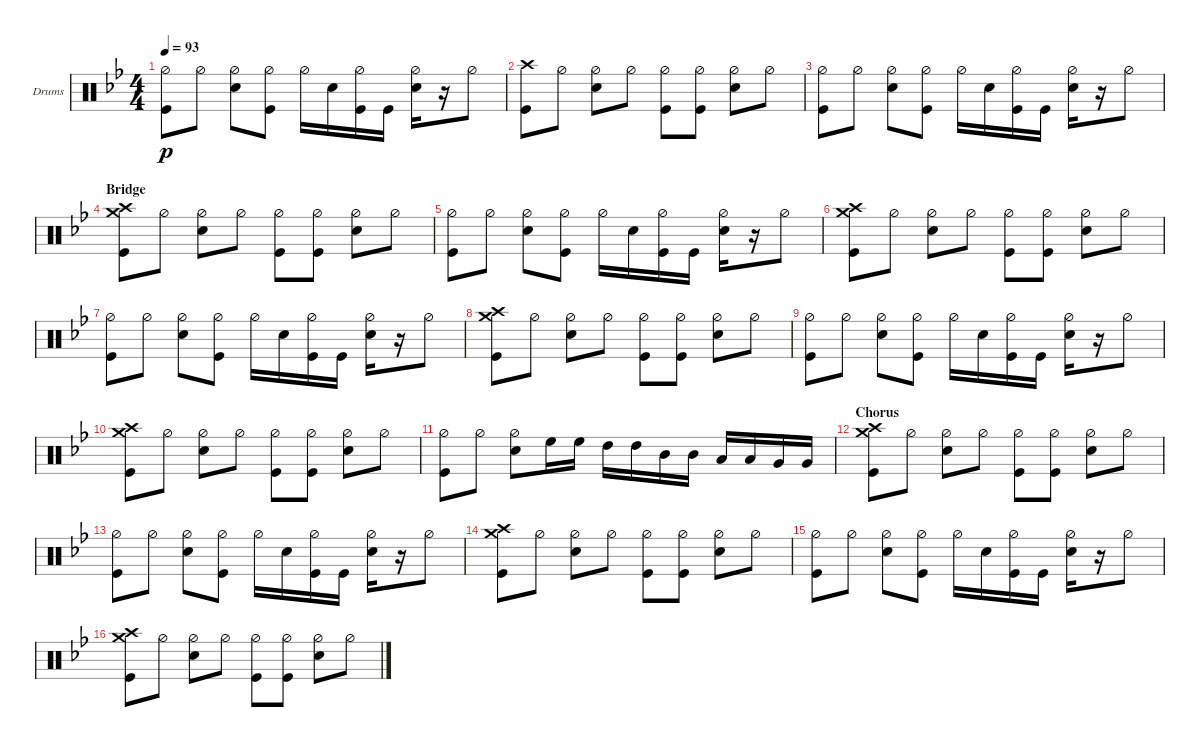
\defaultSystemsLayout 4
\bracketExtendMode groupsimilarinstruments
\firstSystemTrackNameOrientation horizontal
\otherSystemsTrackNameOrientation horizontal
\track ("Drumkit" "Drums") {instrument percussion}
\staff {score}
\articulation defaults
\ts (4 4)
\tempo 93
\clef neutral
\ks bb
("Kick (hit)" "Hi-Hat (half)").8{dy p} "Hi-Hat (half)".8 ("Hi-Hat (half)" "Snare (hit) 2").8 ("Hi-Hat (half)" "Kick (hit)").8 "Hi-Hat (half)".16 "Snare (hit) 2".16 ("Kick (hit)" "Hi-Hat (half)").16 "Kick (hit)".16 ("Hi-Hat (half)" "Snare (hit) 2").16 r.16 "Hi-Hat (half)".8 |
("Crash high (hit)" "Kick (hit)").8 "Hi-Hat (half)".8 ("Hi-Hat (half)" "Snare (hit) 2").8 "Hi-Hat (half)".8 ("Hi-Hat (half)" "Kick (hit)").8 ("Hi-Hat (half)" "Kick (hit)").8 ("Hi-Hat (half)" "Snare (hit) 2").8 "Hi-Hat (half)".8 |
("Kick (hit)" "Hi-Hat (half)").8 "Hi-Hat (half)".8 ("Hi-Hat (half)" "Snare (hit) 2").8 ("Hi-Hat (half)" "Kick (hit)").8 "Hi-Hat (half)".16 "Snare (hit) 2".16 ("Kick (hit)" "Hi-Hat (half)").16 "Kick (hit)".16 ("Hi-Hat (half)" "Snare (hit) 2").16 r.16 "Hi-Hat (half)".8 |
\section ("" "Bridge")
("Crash high (hit)" "Kick (hit)" "Crash medium (hit)").8 "Hi-Hat (half)".8 ("Hi-Hat (half)" "Snare (hit) 2").8 "Hi-Hat (half)".8 ("Hi-Hat (half)" "Kick (hit)").8 ("Hi-Hat (half)" "Kick (hit)").8 ("Hi-Hat (half)" "Snare (hit) 2").8 "Hi-Hat (half)".8 |
("Kick (hit)" "Hi-Hat (half)").8 "Hi-Hat (half)".8 ("Hi-Hat (half)" "Snare (hit) 2").8 ("Hi-Hat (half)" "Kick (hit)").8 "Hi-Hat (half)".16 "Snare (hit) 2".16 ("Kick (hit)" "Hi-Hat (half)").16 "Kick (hit)".16 ("Hi-Hat (half)" "Snare (hit) 2").16 r.16 "Hi-Hat (half)".8 |
("Crash high (hit)" "Kick (hit)" "Crash medium (hit)").8 "Hi-Hat (half)".8 ("Hi-Hat (half)" "Snare (hit) 2").8 "Hi-Hat (half)".8 ("Hi-Hat (half)" "Kick (hit)").8 ("Hi-Hat (half)" "Kick (hit)").8 ("Hi-Hat (half)" "Snare (hit) 2").8 "Hi-Hat (half)".8 |
("Kick (hit)" "Hi-Hat (half)").8 "Hi-Hat (half)".8 ("Hi-Hat (half)" "Snare (hit) 2").8 ("Hi-Hat (half)" "Kick (hit)").8 "Hi-Hat (half)".16 "Snare (hit) 2".16 ("Kick (hit)" "Hi-Hat (half)").16 "Kick (hit)".16 ("Hi-Hat (half)" "Snare (hit) 2").16 r.16 "Hi-Hat (half)".8 |
("Crash high (hit)" "Kick (hit)" "Crash medium (hit)").8 "Hi-Hat (half)".8 ("Hi-Hat (half)" "Snare (hit) 2").8 "Hi-Hat (half)".8 ("Hi-Hat (half)" "Kick (hit)").8 ("Hi-Hat (half)" "Kick (hit)").8 ("Hi-Hat (half)" "Snare (hit) 2").8 "Hi-Hat (half)".8 |
("Kick (hit)" "Hi-Hat (half)").8 "Hi-Hat (half)".8 ("Hi-Hat (half)" "Snare (hit) 2").8 ("Hi-Hat (half)" "Kick (hit)").8 "Hi-Hat (half)".16 "Snare (hit) 2".16 ("Kick (hit)" "Hi-Hat (half)").16 "Kick (hit)".16 ("Hi-Hat (half)" "Snare (hit) 2").16 r.16 "Hi-Hat (half)".8 |
("Crash high (hit)" "Kick (hit)" "Crash medium (hit)").8 "Hi-Hat (half)".8 ("Hi-Hat (half)" "Snare (hit) 2").8 "Hi-Hat (half)".8 ("Hi-Hat (half)" "Kick (hit)").8 ("Hi-Hat (half)" "Kick (hit)").8 ("Hi-Hat (half)" "Snare (hit) 2").8 "Hi-Hat (half)".8 |
("Kick (hit)" "Hi-Hat (half)").8 "Hi-Hat (half)".8 ("Hi-Hat (half)" "Snare (hit) 2").8 "High Floor Tom (hit)".16 "High Floor Tom (hit)".16 "High Tom (hit)".16 "High Tom (hit)".16 "Mid Tom (hit)".16 "Mid Tom (hit)".16 "Low Tom (hit)".16 "Low Tom (hit)".16 "Very Low Tom (hit)".16 "Very Low Tom (hit)".16 |
\section ("" "Chorus")
("Crash high (hit)" "Kick (hit)" "Crash medium (hit)").8 "Hi-Hat (half)".8 ("Hi-Hat (half)" "Snare (hit) 2").8 "Hi-Hat (half)".8 ("Hi-Hat (half)" "Kick (hit)").8 ("Hi-Hat (half)" "Kick (hit)").8 ("Hi-Hat (half)" "Snare (hit) 2").8 "Hi-Hat (half)".8 |
("Kick (hit)" "Hi-Hat (half)").8 "Hi-Hat (half)".8 ("Hi-Hat (half)" "Snare (hit) 2").8 ("Hi-Hat (half)" "Kick (hit)").8 "Hi-Hat (half)".16 "Snare (hit) 2".16 ("Kick (hit)" "Hi-Hat (half)").16 "Kick (hit)".16 ("Hi-Hat (half)" "Snare (hit) 2").16 r.16 "Hi-Hat (half)".8 |
("Crash high (hit)" "Kick (hit)" "Crash medium (hit)").8 "Hi-Hat (half)".8 ("Hi-Hat (half)" "Snare (hit) 2").8 "Hi-Hat (half)".8 ("Hi-Hat (half)" "Kick (hit)").8 ("Hi-Hat (half)" "Kick (hit)").8 ("Hi-Hat (half)" "Snare (hit) 2").8 "Hi-Hat (half)".8 |
("Kick (hit)" "Hi-Hat (half)").8 "Hi-Hat (half)".8 ("Hi-Hat (half)" "Snare (hit) 2").8 ("Hi-Hat (half)" "Kick (hit)").8 "Hi-Hat (half)".16 "Snare (hit) 2".16 ("Kick (hit)" "Hi-Hat (half)").16 "Kick (hit)".16 ("Hi-Hat (half)" "Snare (hit) 2").16 r.16 "Hi-Hat (half)".8 |
("Crash high (hit)" "Kick (hit)" "Crash medium (hit)").8 "Hi-Hat (half)".8 ("Hi-Hat (half)" "Snare (hit) 2").8 "Hi-Hat (half)".8 ("Hi-Hat (half)" "Kick (hit)").8 ("Hi-Hat (half)" "Kick (hit)").8 ("Hi-Hat (half)" "Snare (hit) 2").8 "Hi-Hat (half)".8
